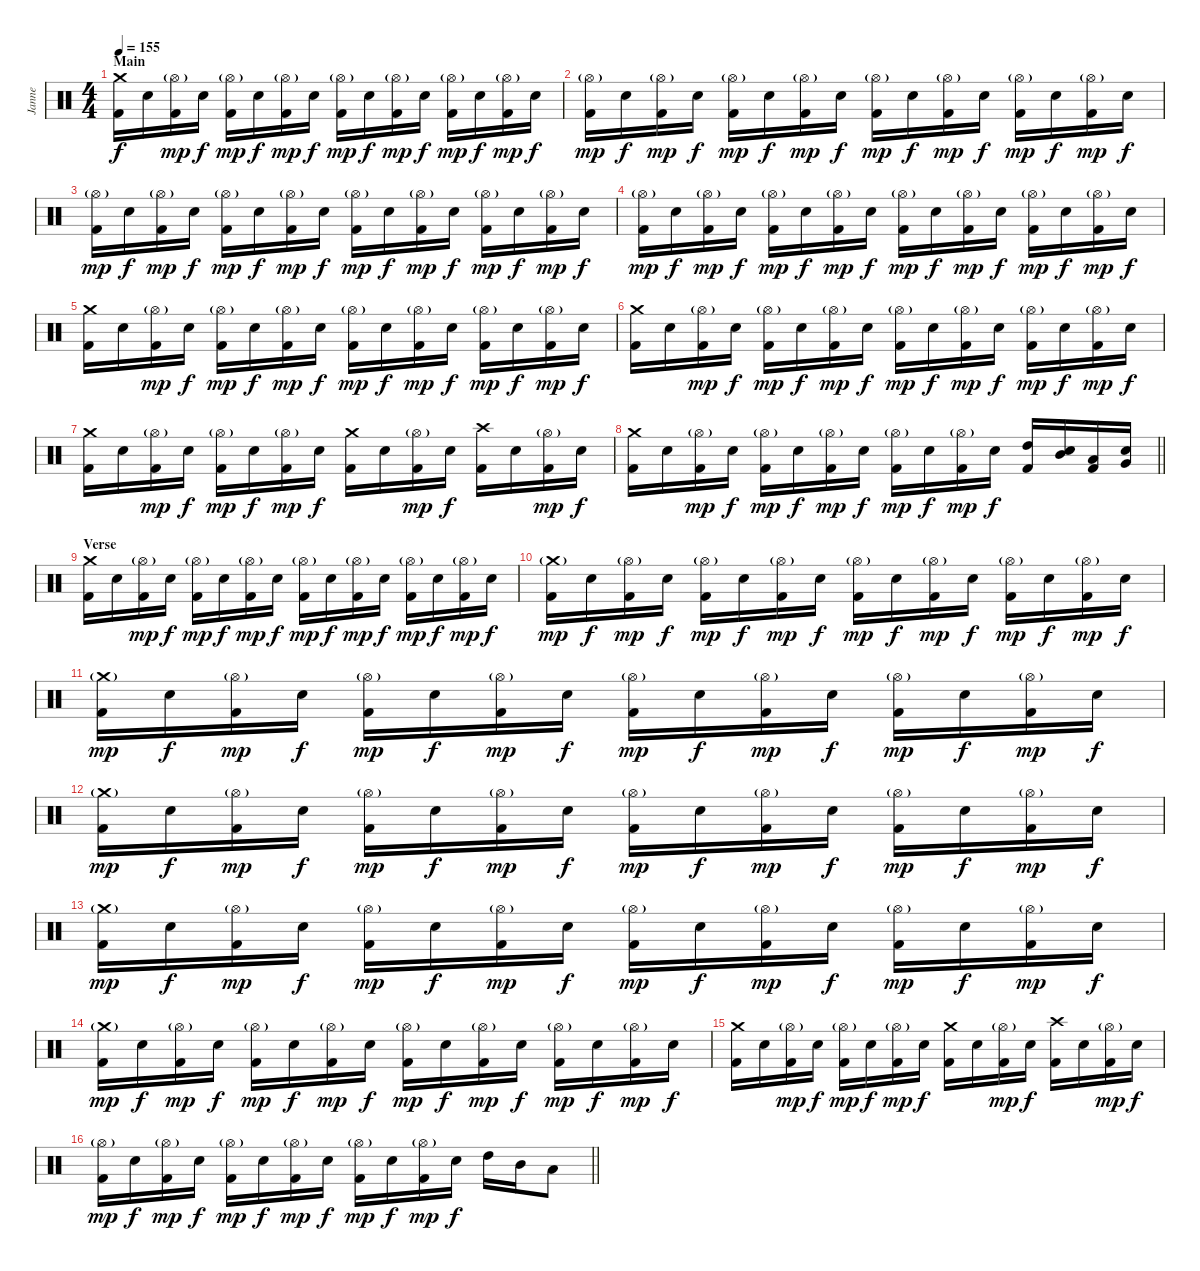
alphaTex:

\track ("Janne" "Janne") {instrument percussion}
\staff {score}
\articulation defaults
\ts (4 4)
\section ("" "Main")
\tempo 155
\clef neutral
\ks c
("Kick (hit) 2" "Crash medium (hit)").16{dy f} "Snare (hit) 2".16 ("Kick (hit) 2" "Hi-Hat (open)"{g}).16{dy mp} "Snare (hit) 2".16{dy f} ("Kick (hit) 2" "Hi-Hat (open)"{g}).16{dy mp} "Snare (hit) 2".16{dy f} ("Kick (hit) 2" "Hi-Hat (open)"{g}).16{dy mp} "Snare (hit) 2".16{dy f} ("Kick (hit) 2" "Hi-Hat (open)"{g}).16{dy mp} "Snare (hit) 2".16{dy f} ("Kick (hit) 2" "Hi-Hat (open)"{g}).16{dy mp} "Snare (hit) 2".16{dy f} ("Kick (hit) 2" "Hi-Hat (open)"{g}).16{dy mp} "Snare (hit) 2".16{dy f} ("Kick (hit) 2" "Hi-Hat (open)"{g}).16{dy mp} "Snare (hit) 2".16{dy f} |
("Kick (hit) 2" "Hi-Hat (open)"{g}).16{dy mp} "Snare (hit) 2".16{dy f} ("Kick (hit) 2" "Hi-Hat (open)"{g}).16{dy mp} "Snare (hit) 2".16{dy f} ("Kick (hit) 2" "Hi-Hat (open)"{g}).16{dy mp} "Snare (hit) 2".16{dy f} ("Kick (hit) 2" "Hi-Hat (open)"{g}).16{dy mp} "Snare (hit) 2".16{dy f} ("Kick (hit) 2" "Hi-Hat (open)"{g}).16{dy mp} "Snare (hit) 2".16{dy f} ("Kick (hit) 2" "Hi-Hat (open)"{g}).16{dy mp} "Snare (hit) 2".16{dy f} ("Kick (hit) 2" "Hi-Hat (open)"{g}).16{dy mp} "Snare (hit) 2".16{dy f} ("Kick (hit) 2" "Hi-Hat (open)"{g}).16{dy mp} "Snare (hit) 2".16{dy f} |
("Kick (hit) 2" "Hi-Hat (open)"{g}).16{dy mp} "Snare (hit) 2".16{dy f} ("Kick (hit) 2" "Hi-Hat (open)"{g}).16{dy mp} "Snare (hit) 2".16{dy f} ("Kick (hit) 2" "Hi-Hat (open)"{g}).16{dy mp} "Snare (hit) 2".16{dy f} ("Kick (hit) 2" "Hi-Hat (open)"{g}).16{dy mp} "Snare (hit) 2".16{dy f} ("Kick (hit) 2" "Hi-Hat (open)"{g}).16{dy mp} "Snare (hit) 2".16{dy f} ("Kick (hit) 2" "Hi-Hat (open)"{g}).16{dy mp} "Snare (hit) 2".16{dy f} ("Kick (hit) 2" "Hi-Hat (open)"{g}).16{dy mp} "Snare (hit) 2".16{dy f} ("Kick (hit) 2" "Hi-Hat (open)"{g}).16{dy mp} "Snare (hit) 2".16{dy f} |
("Kick (hit) 2" "Hi-Hat (open)"{g}).16{dy mp} "Snare (hit) 2".16{dy f} ("Kick (hit) 2" "Hi-Hat (open)"{g}).16{dy mp} "Snare (hit) 2".16{dy f} ("Kick (hit) 2" "Hi-Hat (open)"{g}).16{dy mp} "Snare (hit) 2".16{dy f} ("Kick (hit) 2" "Hi-Hat (open)"{g}).16{dy mp} "Snare (hit) 2".16{dy f} ("Kick (hit) 2" "Hi-Hat (open)"{g}).16{dy mp} "Snare (hit) 2".16{dy f} ("Kick (hit) 2" "Hi-Hat (open)"{g}).16{dy mp} "Snare (hit) 2".16{dy f} ("Kick (hit) 2" "Hi-Hat (open)"{g}).16{dy mp} "Snare (hit) 2".16{dy f} ("Kick (hit) 2" "Hi-Hat (open)"{g}).16{dy mp} "Snare (hit) 2".16{dy f} |
("Kick (hit) 2" "Crash medium (hit)").16 "Snare (hit) 2".16 ("Kick (hit) 2" "Hi-Hat (open)"{g}).16{dy mp} "Snare (hit) 2".16{dy f} ("Kick (hit) 2" "Hi-Hat (open)"{g}).16{dy mp} "Snare (hit) 2".16{dy f} ("Kick (hit) 2" "Hi-Hat (open)"{g}).16{dy mp} "Snare (hit) 2".16{dy f} ("Kick (hit) 2" "Hi-Hat (open)"{g}).16{dy mp} "Snare (hit) 2".16{dy f} ("Kick (hit) 2" "Hi-Hat (open)"{g}).16{dy mp} "Snare (hit) 2".16{dy f} ("Kick (hit) 2" "Hi-Hat (open)"{g}).16{dy mp} "Snare (hit) 2".16{dy f} ("Kick (hit) 2" "Hi-Hat (open)"{g}).16{dy mp} "Snare (hit) 2".16{dy f} |
("Kick (hit) 2" "Crash medium (hit)").16 "Snare (hit) 2".16 ("Kick (hit) 2" "Hi-Hat (open)"{g}).16{dy mp} "Snare (hit) 2".16{dy f} ("Kick (hit) 2" "Hi-Hat (open)"{g}).16{dy mp} "Snare (hit) 2".16{dy f} ("Kick (hit) 2" "Hi-Hat (open)"{g}).16{dy mp} "Snare (hit) 2".16{dy f} ("Kick (hit) 2" "Hi-Hat (open)"{g}).16{dy mp} "Snare (hit) 2".16{dy f} ("Kick (hit) 2" "Hi-Hat (open)"{g}).16{dy mp} "Snare (hit) 2".16{dy f} ("Kick (hit) 2" "Hi-Hat (open)"{g}).16{dy mp} "Snare (hit) 2".16{dy f} ("Kick (hit) 2" "Hi-Hat (open)"{g}).16{dy mp} "Snare (hit) 2".16{dy f} |
("Kick (hit) 2" "Crash medium (hit)").16 "Snare (hit) 2".16 ("Kick (hit) 2" "Hi-Hat (open)"{g}).16{dy mp} "Snare (hit) 2".16{dy f} ("Kick (hit) 2" "Hi-Hat (open)"{g}).16{dy mp} "Snare (hit) 2".16{dy f} ("Kick (hit) 2" "Hi-Hat (open)"{g}).16{dy mp} "Snare (hit) 2".16{dy f} ("Kick (hit) 2" "Crash medium (hit)").16 "Snare (hit) 2".16 ("Kick (hit) 2" "Hi-Hat (open)"{g}).16{dy mp} "Snare (hit) 2".16{dy f} ("Kick (hit) 2" "Crash high (hit)").16 "Snare (hit) 2".16 ("Kick (hit) 2" "Hi-Hat (open)"{g}).16{dy mp} "Snare (hit) 2".16{dy f} |
\barLineRight lightlight
("Kick (hit) 2" "Crash medium (hit)").16 "Snare (hit) 2".16 ("Kick (hit) 2" "Hi-Hat (open)"{g}).16{dy mp} "Snare (hit) 2".16{dy f} ("Kick (hit) 2" "Hi-Hat (open)"{g}).16{dy mp} "Snare (hit) 2".16{dy f} ("Kick (hit) 2" "Hi-Hat (open)"{g}).16{dy mp} "Snare (hit) 2".16{dy f} ("Kick (hit) 2" "Hi-Hat (open)"{g}).16{dy mp} "Snare (hit) 2".16{dy f} ("Kick (hit) 2" "Hi-Hat (open)"{g}).16{dy mp} "Snare (hit) 2".16{dy f} ("Kick (hit) 2" "High Tom (hit)").16 ("Snare (hit) 2" "Mid Tom (hit)").16 ("Kick (hit) 2" "Low Tom (hit)").16 ("Snare (hit) 2" "Very Low Tom (hit)").16 |
\section ("" "Verse")
("Kick (hit) 2" "Crash medium (hit)").16 "Snare (hit) 2".16 ("Kick (hit) 2" "Hi-Hat (open)"{g}).16{dy mp} "Snare (hit) 2".16{dy f} ("Kick (hit) 2" "Hi-Hat (open)"{g}).16{dy mp} "Snare (hit) 2".16{dy f} ("Kick (hit) 2" "Hi-Hat (open)"{g}).16{dy mp} "Snare (hit) 2".16{dy f} ("Kick (hit) 2" "Hi-Hat (open)"{g}).16{dy mp} "Snare (hit) 2".16{dy f} ("Kick (hit) 2" "Hi-Hat (open)"{g}).16{dy mp} "Snare (hit) 2".16{dy f} ("Kick (hit) 2" "Hi-Hat (open)"{g}).16{dy mp} "Snare (hit) 2".16{dy f} ("Kick (hit) 2" "Hi-Hat (open)"{g}).16{dy mp} "Snare (hit) 2".16{dy f} |
("Kick (hit) 2" "Crash medium (hit)"{g}).16{dy mp} "Snare (hit) 2".16{dy f} ("Kick (hit) 2" "Hi-Hat (open)"{g}).16{dy mp} "Snare (hit) 2".16{dy f} ("Kick (hit) 2" "Hi-Hat (open)"{g}).16{dy mp} "Snare (hit) 2".16{dy f} ("Kick (hit) 2" "Hi-Hat (open)"{g}).16{dy mp} "Snare (hit) 2".16{dy f} ("Kick (hit) 2" "Hi-Hat (open)"{g}).16{dy mp} "Snare (hit) 2".16{dy f} ("Kick (hit) 2" "Hi-Hat (open)"{g}).16{dy mp} "Snare (hit) 2".16{dy f} ("Kick (hit) 2" "Hi-Hat (open)"{g}).16{dy mp} "Snare (hit) 2".16{dy f} ("Kick (hit) 2" "Hi-Hat (open)"{g}).16{dy mp} "Snare (hit) 2".16{dy f} |
("Kick (hit) 2" "Crash medium (hit)"{g}).16{dy mp} "Snare (hit) 2".16{dy f} ("Kick (hit) 2" "Hi-Hat (open)"{g}).16{dy mp} "Snare (hit) 2".16{dy f} ("Kick (hit) 2" "Hi-Hat (open)"{g}).16{dy mp} "Snare (hit) 2".16{dy f} ("Kick (hit) 2" "Hi-Hat (open)"{g}).16{dy mp} "Snare (hit) 2".16{dy f} ("Kick (hit) 2" "Hi-Hat (open)"{g}).16{dy mp} "Snare (hit) 2".16{dy f} ("Kick (hit) 2" "Hi-Hat (open)"{g}).16{dy mp} "Snare (hit) 2".16{dy f} ("Kick (hit) 2" "Hi-Hat (open)"{g}).16{dy mp} "Snare (hit) 2".16{dy f} ("Kick (hit) 2" "Hi-Hat (open)"{g}).16{dy mp} "Snare (hit) 2".16{dy f} |
("Kick (hit) 2" "Crash medium (hit)"{g}).16{dy mp} "Snare (hit) 2".16{dy f} ("Kick (hit) 2" "Hi-Hat (open)"{g}).16{dy mp} "Snare (hit) 2".16{dy f} ("Kick (hit) 2" "Hi-Hat (open)"{g}).16{dy mp} "Snare (hit) 2".16{dy f} ("Kick (hit) 2" "Hi-Hat (open)"{g}).16{dy mp} "Snare (hit) 2".16{dy f} ("Kick (hit) 2" "Hi-Hat (open)"{g}).16{dy mp} "Snare (hit) 2".16{dy f} ("Kick (hit) 2" "Hi-Hat (open)"{g}).16{dy mp} "Snare (hit) 2".16{dy f} ("Kick (hit) 2" "Hi-Hat (open)"{g}).16{dy mp} "Snare (hit) 2".16{dy f} ("Kick (hit) 2" "Hi-Hat (open)"{g}).16{dy mp} "Snare (hit) 2".16{dy f} |
("Kick (hit) 2" "Crash medium (hit)"{g}).16{dy mp} "Snare (hit) 2".16{dy f} ("Kick (hit) 2" "Hi-Hat (open)"{g}).16{dy mp} "Snare (hit) 2".16{dy f} ("Kick (hit) 2" "Hi-Hat (open)"{g}).16{dy mp} "Snare (hit) 2".16{dy f} ("Kick (hit) 2" "Hi-Hat (open)"{g}).16{dy mp} "Snare (hit) 2".16{dy f} ("Kick (hit) 2" "Hi-Hat (open)"{g}).16{dy mp} "Snare (hit) 2".16{dy f} ("Kick (hit) 2" "Hi-Hat (open)"{g}).16{dy mp} "Snare (hit) 2".16{dy f} ("Kick (hit) 2" "Hi-Hat (open)"{g}).16{dy mp} "Snare (hit) 2".16{dy f} ("Kick (hit) 2" "Hi-Hat (open)"{g}).16{dy mp} "Snare (hit) 2".16{dy f} |
("Kick (hit) 2" "Crash medium (hit)"{g}).16{dy mp} "Snare (hit) 2".16{dy f} ("Kick (hit) 2" "Hi-Hat (open)"{g}).16{dy mp} "Snare (hit) 2".16{dy f} ("Kick (hit) 2" "Hi-Hat (open)"{g}).16{dy mp} "Snare (hit) 2".16{dy f} ("Kick (hit) 2" "Hi-Hat (open)"{g}).16{dy mp} "Snare (hit) 2".16{dy f} ("Kick (hit) 2" "Hi-Hat (open)"{g}).16{dy mp} "Snare (hit) 2".16{dy f} ("Kick (hit) 2" "Hi-Hat (open)"{g}).16{dy mp} "Snare (hit) 2".16{dy f} ("Kick (hit) 2" "Hi-Hat (open)"{g}).16{dy mp} "Snare (hit) 2".16{dy f} ("Kick (hit) 2" "Hi-Hat (open)"{g}).16{dy mp} "Snare (hit) 2".16{dy f} |
("Kick (hit) 2" "Crash medium (hit)").16 "Snare (hit) 2".16 ("Kick (hit) 2" "Hi-Hat (open)"{g}).16{dy mp} "Snare (hit) 2".16{dy f} ("Kick (hit) 2" "Hi-Hat (open)"{g}).16{dy mp} "Snare (hit) 2".16{dy f} ("Kick (hit) 2" "Hi-Hat (open)"{g}).16{dy mp} "Snare (hit) 2".16{dy f} ("Kick (hit) 2" "Crash medium (hit)").16 "Snare (hit) 2".16 ("Kick (hit) 2" "Hi-Hat (open)"{g}).16{dy mp} "Snare (hit) 2".16{dy f} ("Kick (hit) 2" "Crash high (hit)").16 "Snare (hit) 2".16 ("Kick (hit) 2" "Hi-Hat (open)"{g}).16{dy mp} "Snare (hit) 2".16{dy f} |
\barLineRight lightlight
("Kick (hit) 2" "Hi-Hat (open)"{g}).16{dy mp} "Snare (hit) 2".16{dy f} ("Kick (hit) 2" "Hi-Hat (open)"{g}).16{dy mp} "Snare (hit) 2".16{dy f} ("Kick (hit) 2" "Hi-Hat (open)"{g}).16{dy mp} "Snare (hit) 2".16{dy f} ("Kick (hit) 2" "Hi-Hat (open)"{g}).16{dy mp} "Snare (hit) 2".16{dy f} ("Kick (hit) 2" "Hi-Hat (open)"{g}).16{dy mp} "Snare (hit) 2".16{dy f} ("Kick (hit) 2" "Hi-Hat (open)"{g}).16{dy mp} "Snare (hit) 2".16{dy f} "High Tom (hit)".16 "Mid Tom (hit)".16 "Low Tom (hit)".8
